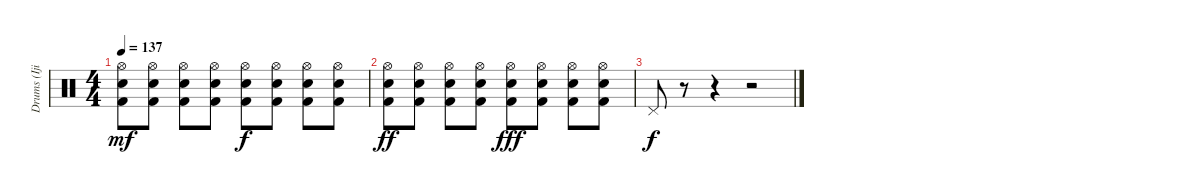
\track ("Drums (Ijichi)" "Drums (Iji") {instrument percussion}
\staff {score}
\articulation defaults
\ts (4 4)
\tempo 137
\clef neutral
\ks c
("Hi-Hat (open)" "Snare (hit) 2" "Kick (hit) 2").8{dy mf} ("Hi-Hat (open)" "Snare (hit) 2" "Kick (hit) 2").8 ("Hi-Hat (open)" "Snare (hit) 2" "Kick (hit) 2").8 ("Hi-Hat (open)" "Snare (hit) 2" "Kick (hit) 2").8 ("Hi-Hat (open)" "Snare (hit) 2" "Kick (hit) 2").8{dy f} ("Hi-Hat (open)" "Snare (hit) 2" "Kick (hit) 2").8 ("Hi-Hat (open)" "Snare (hit) 2" "Kick (hit) 2").8 ("Hi-Hat (open)" "Snare (hit) 2" "Kick (hit) 2").8 |
("Hi-Hat (open)" "Snare (hit) 2" "Kick (hit) 2").8{dy ff} ("Hi-Hat (open)" "Snare (hit) 2" "Kick (hit) 2").8 ("Hi-Hat (open)" "Snare (hit) 2" "Kick (hit) 2").8 ("Hi-Hat (open)" "Snare (hit) 2" "Kick (hit) 2").8 ("Hi-Hat (open)" "Snare (hit) 2" "Kick (hit) 2").8{dy fff} ("Hi-Hat (open)" "Snare (hit) 2" "Kick (hit) 2").8 ("Hi-Hat (open)" "Snare (hit) 2" "Kick (hit) 2").8 ("Hi-Hat (open)" "Snare (hit) 2" "Kick (hit) 2").8 |
"Pedal Hi-Hat (hit)".8{dy f} r.8 r.4 r.2
